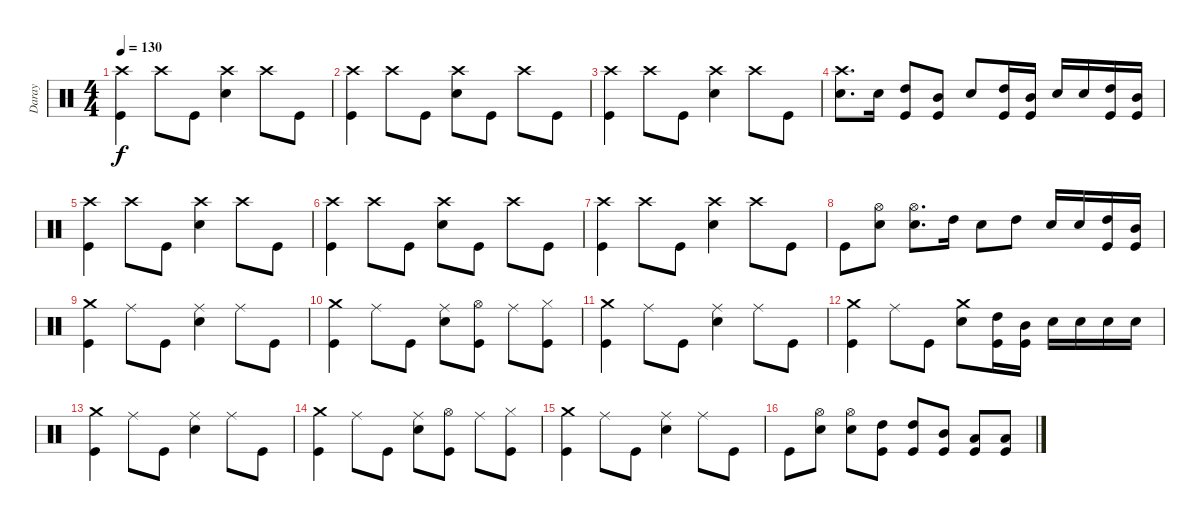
\track ("Daray" "Daray") {instrument percussion}
\staff {score}
\articulation defaults
\ts (4 4)
\tempo 130
\clef neutral
\ks c
("Crash high (hit)" "Kick (hit)").4{dy f} "Crash high (hit)".8 "Kick (hit)".8 ("Crash high (hit)" "Electric Snare (hit)").4 "Crash high (hit)".8 "Kick (hit)".8 |
("Crash high (hit)" "Kick (hit)").4 "Crash high (hit)".8 "Kick (hit)".8 ("Crash high (hit)" "Electric Snare (hit)").8 "Kick (hit)".8 "Crash high (hit)".8 "Kick (hit)".8 |
("Crash high (hit)" "Kick (hit)").4 "Crash high (hit)".8 "Kick (hit)".8 ("Crash high (hit)" "Electric Snare (hit)").4 "Crash high (hit)".8 "Kick (hit)".8 |
("Crash high (hit)" "Electric Snare (hit)").8{d} "Electric Snare (hit)".16 ("High Tom (hit)" "Kick (hit)").8 ("Mid Tom (hit)" "Kick (hit)").8 "Electric Snare (hit)".8 ("High Tom (hit)" "Kick (hit)").16 ("Mid Tom (hit)" "Kick (hit)").16 "Electric Snare (hit)".16 "Electric Snare (hit)".16 ("High Tom (hit)" "Kick (hit)").16 ("Mid Tom (hit)" "Kick (hit)").16 |
("Crash high (hit)" "Kick (hit)").4 "Crash high (hit)".8 "Kick (hit)".8 ("Crash high (hit)" "Electric Snare (hit)").4 "Crash high (hit)".8 "Kick (hit)".8 |
("Crash high (hit)" "Kick (hit)").4 "Crash high (hit)".8 "Kick (hit)".8 ("Crash high (hit)" "Electric Snare (hit)").8 "Kick (hit)".8 "Crash high (hit)".8 "Kick (hit)".8 |
("Crash high (hit)" "Kick (hit)").4 "Crash high (hit)".8 "Kick (hit)".8 ("Crash high (hit)" "Electric Snare (hit)").4 "Crash high (hit)".8 "Kick (hit)".8 |
"Kick (hit)".8 ("Hi-Hat (open)" "Electric Snare (hit)").8 ("Hi-Hat (open)" "Electric Snare (hit)").8{d} "High Tom (hit)".16 "Electric Snare (hit)".8 "High Tom (hit)".8 "Electric Snare (hit)".16 "Electric Snare (hit)".16 ("High Tom (hit)" "Kick (hit)").16 ("Mid Tom (hit)" "Kick (hit)").16 |
("Crash medium (hit)" "Kick (hit)").4 "Ride (middle)".8 "Kick (hit)".8 ("Ride (middle)" "Electric Snare (hit)").4 "Ride (middle)".8 "Kick (hit)".8 |
("Crash medium (hit)" "Kick (hit)").4 "Ride (middle)".8 "Kick (hit)".8 ("Ride (middle)" "Electric Snare (hit)").8 ("Hi-Hat (open)" "Kick (hit)").8 "Ride (middle)".8 ("Hi-Hat (closed)" "Kick (hit)").8 |
("Crash medium (hit)" "Kick (hit)").4 "Ride (middle)".8 "Kick (hit)".8 ("Ride (middle)" "Electric Snare (hit)").4 "Ride (middle)".8 "Kick (hit)".8 |
("Crash medium (hit)" "Kick (hit)").4 "Ride (middle)".8 "Kick (hit)".8 ("Crash medium (hit)" "Electric Snare (hit)").8 ("High Tom (hit)" "Kick (hit)").16 ("Mid Tom (hit)" "Kick (hit)").16 "Electric Snare (hit)".16 "Electric Snare (hit)".16 "Electric Snare (hit)".16 "Electric Snare (hit)".16 |
("Crash medium (hit)" "Kick (hit)").4 "Ride (middle)".8 "Kick (hit)".8 ("Ride (middle)" "Electric Snare (hit)").4 "Ride (middle)".8 "Kick (hit)".8 |
("Crash medium (hit)" "Kick (hit)").4 "Ride (middle)".8 "Kick (hit)".8 ("Ride (middle)" "Electric Snare (hit)").8 ("Hi-Hat (open)" "Kick (hit)").8 "Ride (middle)".8 ("Hi-Hat (closed)" "Kick (hit)").8 |
("Crash medium (hit)" "Kick (hit)").4 "Ride (middle)".8 "Kick (hit)".8 ("Ride (middle)" "Electric Snare (hit)").4 "Ride (middle)".8 "Kick (hit)".8 |
"Kick (hit)".8 ("Hi-Hat (open)" "Electric Snare (hit)").8 ("Hi-Hat (open)" "Electric Snare (hit)").8 ("High Tom (hit)" "Kick (hit)").8 ("High Tom (hit)" "Kick (hit)").8 ("Mid Tom (hit)" "Kick (hit)").8 ("Low Tom (hit)" "Kick (hit)").8 ("Low Tom (hit)" "Kick (hit)").8
